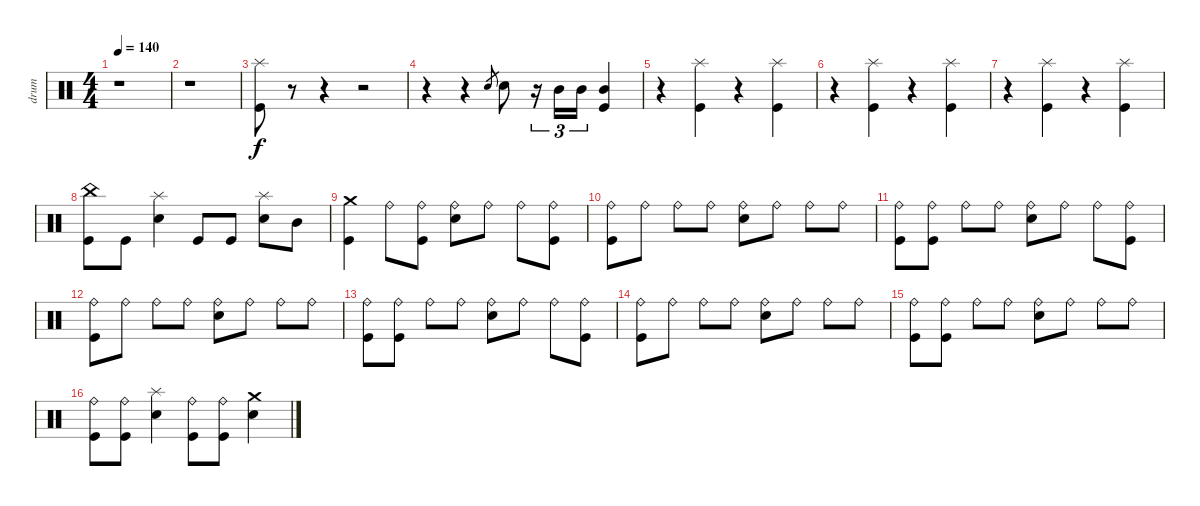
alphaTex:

\track ("drum" "drum") {instrument percussion}
\staff {score}
\articulation defaults
\ts (4 4)
\tempo 140
\clef neutral
\ks c
r.1{dy f} |
r.1 |
("Kick (hit)" "Splash (hit)").8 r.8 r.4 r.2 |
r.4 r.4 "Electric Snare (hit)".8{gr} "Electric Snare (hit)".8 r.16{tu (3 2)} "Mid Tom (hit)".16{tu (3 2)} "Mid Tom (hit)".16{tu (3 2)} ("Kick (hit)" "Mid Tom (hit)").4 |
r.4 ("Kick (hit)" "Splash (hit)").4 r.4 ("Kick (hit)" "Splash (hit)").4 |
r.4 ("Kick (hit)" "Splash (hit)").4 r.4 ("Kick (hit)" "Splash (hit)").4 |
r.4 ("Kick (hit)" "Splash (hit)").4 r.4 ("Kick (hit)" "Splash (hit)").4 |
("Kick (hit)" "China (hit)").8 "Kick (hit)".8 ("Electric Snare (hit)" "Splash (hit)").4 "Kick (hit)".8 "Kick (hit)".8 ("Electric Snare (hit)" "Splash (hit)").8 "Mid Tom (hit)".8 |
("Kick (hit)" "Crash medium (hit)").4 "Ride (bell)".8 ("Kick (hit)" "Ride (bell)").8 ("Electric Snare (hit)" "Ride (bell)").8 "Ride (bell)".8 "Ride (bell)".8 ("Kick (hit)" "Ride (bell)").8 |
("Kick (hit)" "Ride (bell)").8 "Ride (bell)".8 "Ride (bell)".8 "Ride (bell)".8 ("Electric Snare (hit)" "Ride (bell)").8 "Ride (bell)".8 "Ride (bell)".8 "Ride (bell)".8 |
("Kick (hit)" "Ride (bell)").8 ("Kick (hit)" "Ride (bell)").8 "Ride (bell)".8 "Ride (bell)".8 ("Electric Snare (hit)" "Ride (bell)").8 "Ride (bell)".8 "Ride (bell)".8 ("Kick (hit)" "Ride (bell)").8 |
("Kick (hit)" "Ride (bell)").8 "Ride (bell)".8 "Ride (bell)".8 "Ride (bell)".8 ("Electric Snare (hit)" "Ride (bell)").8 "Ride (bell)".8 "Ride (bell)".8 "Ride (bell)".8 |
("Kick (hit)" "Ride (bell)").8 ("Kick (hit)" "Ride (bell)").8 "Ride (bell)".8 "Ride (bell)".8 ("Electric Snare (hit)" "Ride (bell)").8 "Ride (bell)".8 "Ride (bell)".8 ("Kick (hit)" "Ride (bell)").8 |
("Kick (hit)" "Ride (bell)").8 "Ride (bell)".8 "Ride (bell)".8 "Ride (bell)".8 ("Electric Snare (hit)" "Ride (bell)").8 "Ride (bell)".8 "Ride (bell)".8 "Ride (bell)".8 |
("Kick (hit)" "Ride (bell)").8 ("Kick (hit)" "Ride (bell)").8 "Ride (bell)".8 "Ride (bell)".8 ("Electric Snare (hit)" "Ride (bell)").8 "Ride (bell)".8 "Ride (bell)".8 "Ride (bell)".8 |
("Kick (hit)" "Ride (bell)").8 ("Kick (hit)" "Ride (bell)").8 ("Electric Snare (hit)" "Splash (hit)").4 ("Kick (hit)" "Ride (bell)").8 ("Kick (hit)" "Ride (bell)").8 ("Electric Snare (hit)" "Crash medium (hit)").4
